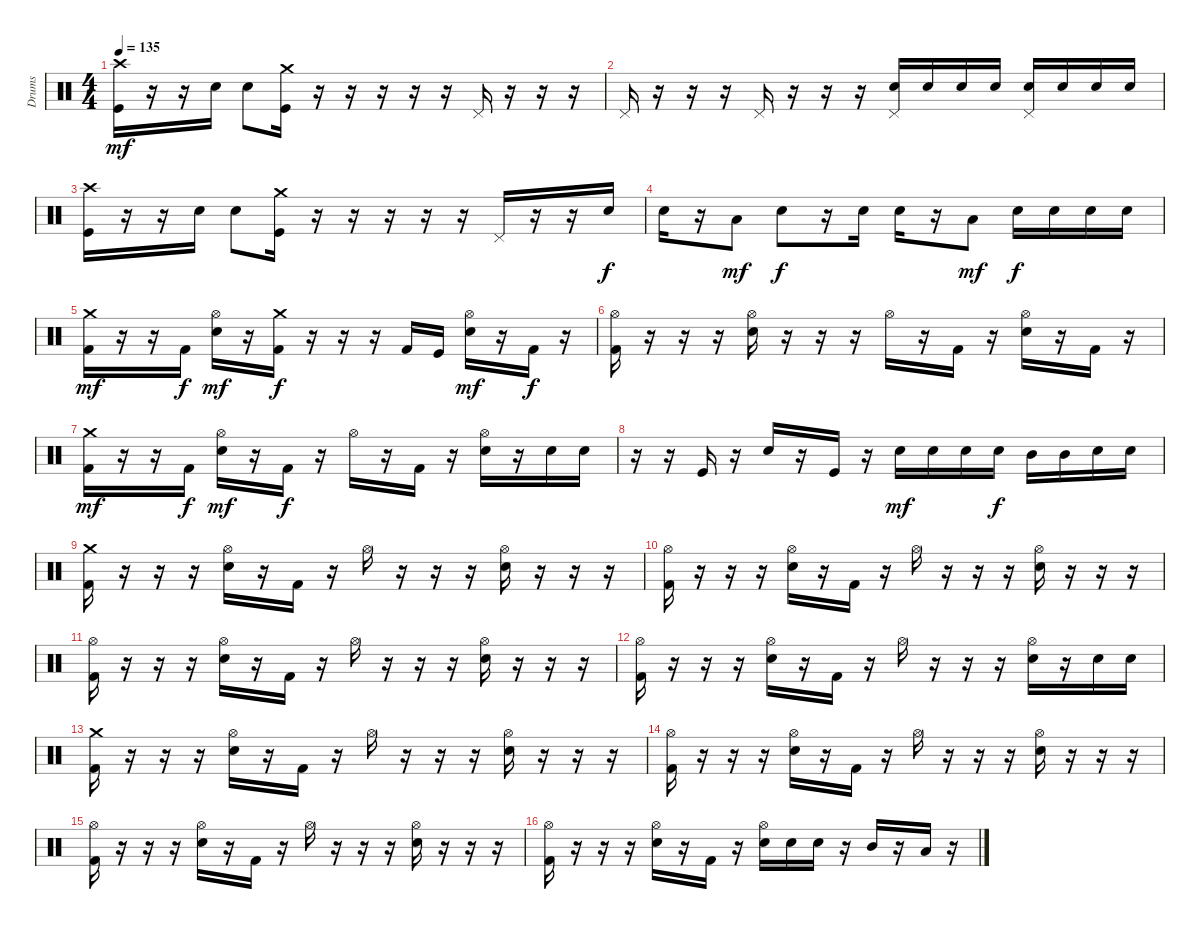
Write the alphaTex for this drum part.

\track ("Drums" "Drums") {instrument percussion}
\staff {score}
\articulation defaults
\ts (4 4)
\tempo 135
\clef neutral
\ks c
("Crash high (hit)" "Kick (hit)").16{dy mf} r.16 r.16 "Electric Snare (hit)".16 "Electric Snare (hit)".8 ("Crash medium (hit)" "Kick (hit)").16 r.16 r.16 r.16 r.16 r.16 "Pedal Hi-Hat (hit)".16 r.16 r.16 r.16 |
"Pedal Hi-Hat (hit)".16 r.16 r.16 r.16 "Pedal Hi-Hat (hit)".16 r.16 r.16 r.16 ("Pedal Hi-Hat (hit)" "Electric Snare (hit)").16 "Electric Snare (hit)".16 "Electric Snare (hit)".16 "Electric Snare (hit)".16 ("Pedal Hi-Hat (hit)" "Electric Snare (hit)").16 "Electric Snare (hit)".16 "Electric Snare (hit)".16 "Electric Snare (hit)".16 |
("Crash high (hit)" "Kick (hit)").16 r.16 r.16 "Electric Snare (hit)".16 "Electric Snare (hit)".8 ("Crash medium (hit)" "Kick (hit)").16 r.16 r.16 r.16 r.16 r.16 "Pedal Hi-Hat (hit)".16 r.16 r.16 "Electric Snare (hit)".16{dy f} |
"Electric Snare (hit)".16 r.16 "Low Tom (hit)".8{dy mf} "Electric Snare (hit)".8{dy f} r.16 "Electric Snare (hit)".16 "Electric Snare (hit)".16 r.16 "Low Tom (hit)".8{dy mf} "Electric Snare (hit)".16{dy f} "Electric Snare (hit)".16 "Electric Snare (hit)".16 "Electric Snare (hit)".16 |
("Crash medium (hit)" "Kick (hit) 2").16{dy mf} r.16 r.16 "Kick (hit) 2".16{dy f} ("Hi-Hat (open)" "Electric Snare (hit)").16{dy mf} r.16 ("Crash medium (hit)" "Kick (hit) 2").16{dy f} r.16 r.16 r.16 "Kick (hit) 2".16 "Kick (hit)".16 ("Hi-Hat (open)" "Electric Snare (hit)").16{dy mf} r.16 "Kick (hit) 2".16{dy f} r.16 |
("Hi-Hat (open)" "Kick (hit) 2").16 r.16 r.16 r.16 ("Hi-Hat (open)" "Electric Snare (hit)").16 r.16 r.16 r.16 "Hi-Hat (open)".16 r.16 "Kick (hit) 2".16 r.16 ("Hi-Hat (open)" "Electric Snare (hit)").16 r.16 "Kick (hit) 2".16 r.16 |
("Crash medium (hit)" "Kick (hit) 2").16{dy mf} r.16 r.16 "Kick (hit) 2".16{dy f} ("Hi-Hat (open)" "Electric Snare (hit)").16{dy mf} r.16 "Kick (hit) 2".16{dy f} r.16 "Hi-Hat (open)".16 r.16 "Kick (hit) 2".16 r.16 ("Hi-Hat (open)" "Electric Snare (hit)").16 r.16 "Electric Snare (hit)".16 "Electric Snare (hit)".16 |
r.16 r.16 "Kick (hit)".16 r.16 "Electric Snare (hit)".16 r.16 "Kick (hit)".16 r.16 "Electric Snare (hit)".16{dy mf} "Electric Snare (hit)".16 "Electric Snare (hit)".16 "Electric Snare (hit)".16{dy f} "Mid Tom (hit)".16 "Mid Tom (hit)".16 "Electric Snare (hit)".16 "Electric Snare (hit)".16 |
("Crash medium (hit)" "Kick (hit) 2").16 r.16 r.16 r.16 ("Hi-Hat (open)" "Electric Snare (hit)").16 r.16 "Kick (hit) 2".16 r.16 "Hi-Hat (open)".16 r.16 r.16 r.16 ("Hi-Hat (open)" "Electric Snare (hit)").16 r.16 r.16 r.16 |
("Hi-Hat (open)" "Kick (hit) 2").16 r.16 r.16 r.16 ("Hi-Hat (open)" "Electric Snare (hit)").16 r.16 "Kick (hit) 2".16 r.16 "Hi-Hat (open)".16 r.16 r.16 r.16 ("Hi-Hat (open)" "Electric Snare (hit)").16 r.16 r.16 r.16 |
("Hi-Hat (open)" "Kick (hit) 2").16 r.16 r.16 r.16 ("Hi-Hat (open)" "Electric Snare (hit)").16 r.16 "Kick (hit) 2".16 r.16 "Hi-Hat (open)".16 r.16 r.16 r.16 ("Hi-Hat (open)" "Electric Snare (hit)").16 r.16 r.16 r.16 |
("Hi-Hat (open)" "Kick (hit) 2").16 r.16 r.16 r.16 ("Hi-Hat (open)" "Electric Snare (hit)").16 r.16 "Kick (hit) 2".16 r.16 "Hi-Hat (open)".16 r.16 r.16 r.16 ("Hi-Hat (open)" "Electric Snare (hit)").16 r.16 "Electric Snare (hit)".16 "Electric Snare (hit)".16 |
("Crash medium (hit)" "Kick (hit) 2").16 r.16 r.16 r.16 ("Hi-Hat (open)" "Electric Snare (hit)").16 r.16 "Kick (hit) 2".16 r.16 "Hi-Hat (open)".16 r.16 r.16 r.16 ("Hi-Hat (open)" "Electric Snare (hit)").16 r.16 r.16 r.16 |
("Hi-Hat (open)" "Kick (hit) 2").16 r.16 r.16 r.16 ("Hi-Hat (open)" "Electric Snare (hit)").16 r.16 "Kick (hit) 2".16 r.16 "Hi-Hat (open)".16 r.16 r.16 r.16 ("Hi-Hat (open)" "Electric Snare (hit)").16 r.16 r.16 r.16 |
("Hi-Hat (open)" "Kick (hit) 2").16 r.16 r.16 r.16 ("Hi-Hat (open)" "Electric Snare (hit)").16 r.16 "Kick (hit) 2".16 r.16 "Hi-Hat (open)".16 r.16 r.16 r.16 ("Hi-Hat (open)" "Electric Snare (hit)").16 r.16 r.16 r.16 |
("Hi-Hat (open)" "Kick (hit) 2").16 r.16 r.16 r.16 ("Hi-Hat (open)" "Electric Snare (hit)").16 r.16 "Kick (hit) 2".16 r.16 ("Hi-Hat (open)" "Electric Snare (hit)").16 "Electric Snare (hit)".16 "Electric Snare (hit)".16 r.16 "Mid Tom (hit)".16 r.16 "Low Tom (hit)".16 r.16
